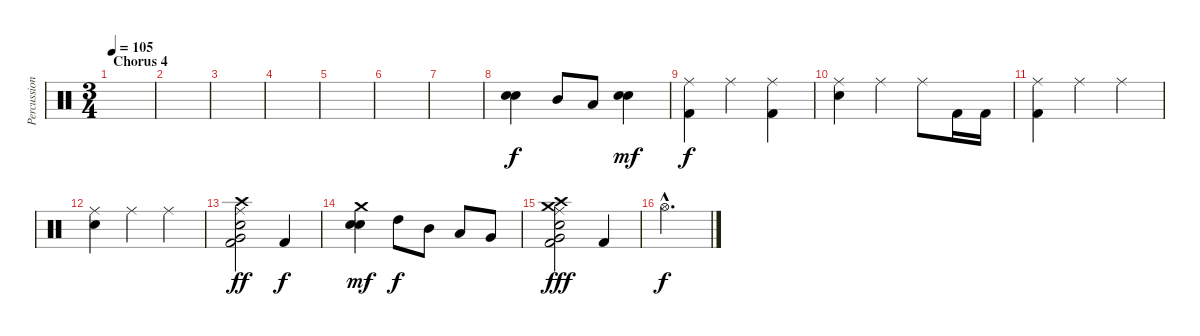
\track ("Percussion" "Percussion") {instrument percussion}
\staff {score}
\articulation defaults
\ts (3 4)
\section ("" "Chorus 4")
\tempo 105
\clef neutral
\ks c
|
|
|
|
|
|
|
("Snare (hit) 2" "Snare (hit) 2").4{bd 240} "Mid Tom (hit)".8{dy f} "Low Tom (hit)".8 ("Snare (hit) 2" "Snare (hit) 2").4{bd 480 dy mf} |
("Kick (hit) 2" "Ride (middle)").4{dy f} "Ride (middle)".4 ("Kick (hit) 2" "Ride (middle)").4 |
("Snare (hit) 2" "Ride (middle)").4 "Ride (middle)".4 "Ride (middle)".8 "Kick (hit) 2".16 "Kick (hit) 2".16 |
("Kick (hit) 2" "Ride (middle)").4 "Ride (middle)".4 "Ride (middle)".4 |
("Snare (hit) 2" "Ride (middle)").4 "Ride (middle)".4 "Ride (middle)".4 |
("Kick (hit) 2" "Snare (hit) 2" "Very Low Tom (hit)" "Crash high (hit)" "Ride (middle)").2{dy ff} "Kick (hit) 2".4{dy f} |
("Snare (hit) 2" "Snare (hit) 2" "Crash medium (hit)").4{bd 120 dy mf} "High Tom (hit)".8{dy f} "Mid Tom (hit)".8 "Low Tom (hit)".8 "Very Low Tom (hit)".8 |
("Snare (hit) 2" "Kick (hit) 2" "Very Low Tom (hit)" "Crash high (hit)" "Crash medium (hit)" "Ride (middle)").2{dy fff} "Kick (hit) 2".4 |
"Hi-Hat (open)"{hac}.2{d dy f}
